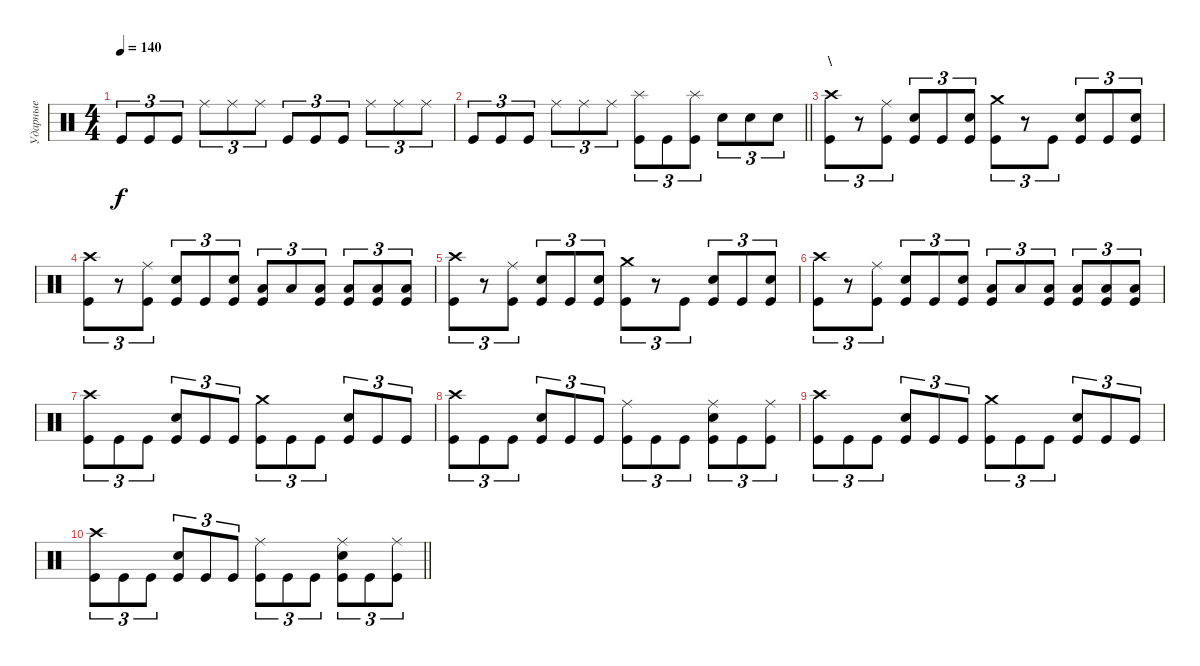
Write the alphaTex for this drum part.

\track ("Ударные" "Ударные") {instrument percussion}
\staff {score}
\articulation defaults
\ts (4 4)
\tempo 140
\clef neutral
\ks c "Kick (hit)".8{tu (3 2) dy f} "Kick (hit)".8{tu (3 2)} "Kick (hit)".8{tu (3 2)} "Ride (middle)".8{tu (3 2)} "Ride (middle)".8{tu (3 2)} "Ride (middle)".8{tu (3 2)} "Kick (hit)".8{tu (3 2)} "Kick (hit)".8{tu (3 2)} "Kick (hit)".8{tu (3 2)} "Ride (middle)".8{tu (3 2)} "Ride (middle)".8{tu (3 2)} "Ride (middle)".8{tu (3 2)}
|
\barLineRight lightlight "Kick (hit)".8{tu (3 2)} "Kick (hit)".8{tu (3 2)} "Kick (hit)".8{tu (3 2)} "Ride (middle)".8{tu (3 2)} "Ride (middle)".8{tu (3 2)} "Ride (middle)".8{tu (3 2)}
("Splash (hit)" "Kick (hit)").8{tu (3 2)} "Kick (hit)".8{tu (3 2)} ("Splash (hit)" "Kick (hit)").8{tu (3 2)} "Electric Snare (hit)".8{tu (3 2)} "Electric Snare (hit)".8{tu (3 2)} "Electric Snare (hit)".8{tu (3 2)} |
\section ("" " \\")
("Kick (hit)" "Crash high (hit)").8{tu (3 2)} r.8{tu (3 2)} ("Kick (hit)" "Ride (middle)").8{tu (3 2)} ("Kick (hit)" "Electric Snare (hit)").8{tu (3 2)} "Kick (hit)".8{tu (3 2)} ("Kick (hit)" "Electric Snare (hit)").8{tu (3 2)} ("Kick (hit)" "Crash medium (hit)").8{tu (3 2)} r.8{tu (3 2)} "Kick (hit)".8{tu (3 2)} ("Kick (hit)" "Electric Snare (hit)").8{tu (3 2)} "Kick (hit)".8{tu (3 2)} ("Kick (hit)" "Electric Snare (hit)").8{tu (3 2)} |
("Kick (hit)" "Crash high (hit)").8{tu (3 2)} r.8{tu (3 2)} ("Kick (hit)" "Ride (middle)").8{tu (3 2)} ("Kick (hit)" "Electric Snare (hit)").8{tu (3 2)} "Kick (hit)".8{tu (3 2)} ("Kick (hit)" "Electric Snare (hit)").8{tu (3 2)} ("Kick (hit)" "Low Tom (hit)").8{tu (3 2)} "Low Tom (hit)".8{tu (3 2)} ("Kick (hit)" "Low Tom (hit)").8{tu (3 2)} ("Kick (hit)" "Low Floor Tom (hit)").8{tu (3 2)} ("Kick (hit)" "Low Floor Tom (hit)").8{tu (3 2)} ("Kick (hit)" "Low Floor Tom (hit)").8{tu (3 2)} |
("Kick (hit)" "Crash high (hit)").8{tu (3 2)} r.8{tu (3 2)} ("Kick (hit)" "Ride (middle)").8{tu (3 2)} ("Kick (hit)" "Electric Snare (hit)").8{tu (3 2)} "Kick (hit)".8{tu (3 2)} ("Kick (hit)" "Electric Snare (hit)").8{tu (3 2)} ("Kick (hit)" "Crash medium (hit)").8{tu (3 2)} r.8{tu (3 2)} "Kick (hit)".8{tu (3 2)} ("Kick (hit)" "Electric Snare (hit)").8{tu (3 2)} "Kick (hit)".8{tu (3 2)} ("Kick (hit)" "Electric Snare (hit)").8{tu (3 2)} |
("Kick (hit)" "Crash high (hit)").8{tu (3 2)} r.8{tu (3 2)} ("Kick (hit)" "Ride (middle)").8{tu (3 2)} ("Kick (hit)" "Electric Snare (hit)").8{tu (3 2)} "Kick (hit)".8{tu (3 2)} ("Kick (hit)" "Electric Snare (hit)").8{tu (3 2)} ("Kick (hit)" "Low Tom (hit)").8{tu (3 2)} "Low Tom (hit)".8{tu (3 2)} ("Kick (hit)" "Low Tom (hit)").8{tu (3 2)} ("Kick (hit)" "Low Floor Tom (hit)").8{tu (3 2)} ("Kick (hit)" "Low Floor Tom (hit)").8{tu (3 2)} ("Kick (hit)" "Low Floor Tom (hit)").8{tu (3 2)} |
("Kick (hit)" "Crash high (hit)").8{tu (3 2)} "Kick (hit)".8{tu (3 2)} "Kick (hit)".8{tu (3 2)} ("Kick (hit)" "Electric Snare (hit)").8{tu (3 2)} "Kick (hit)".8{tu (3 2)} "Kick (hit)".8{tu (3 2)} ("Kick (hit)" "Crash medium (hit)").8{tu (3 2)} "Kick (hit)".8{tu (3 2)} "Kick (hit)".8{tu (3 2)} ("Kick (hit)" "Electric Snare (hit)").8{tu (3 2)} "Kick (hit)".8{tu (3 2)} "Kick (hit)".8{tu (3 2)} |
("Kick (hit)" "Crash high (hit)").8{tu (3 2)} "Kick (hit)".8{tu (3 2)} "Kick (hit)".8{tu (3 2)} ("Kick (hit)" "Electric Snare (hit)").8{tu (3 2)} "Kick (hit)".8{tu (3 2)} "Kick (hit)".8{tu (3 2)} ("Kick (hit)" "Ride (middle)").8{tu (3 2)} "Kick (hit)".8{tu (3 2)} "Kick (hit)".8{tu (3 2)} ("Kick (hit)" "Electric Snare (hit)" "Ride (middle)").8{tu (3 2)} "Kick (hit)".8{tu (3 2)} ("Kick (hit)" "Ride (middle)").8{tu (3 2)} |
("Kick (hit)" "Crash high (hit)").8{tu (3 2)} "Kick (hit)".8{tu (3 2)} "Kick (hit)".8{tu (3 2)} ("Kick (hit)" "Electric Snare (hit)").8{tu (3 2)} "Kick (hit)".8{tu (3 2)} "Kick (hit)".8{tu (3 2)} ("Kick (hit)" "Crash medium (hit)").8{tu (3 2)} "Kick (hit)".8{tu (3 2)} "Kick (hit)".8{tu (3 2)} ("Kick (hit)" "Electric Snare (hit)").8{tu (3 2)} "Kick (hit)".8{tu (3 2)} "Kick (hit)".8{tu (3 2)} |
\barLineRight lightlight
("Kick (hit)" "Crash high (hit)").8{tu (3 2)} "Kick (hit)".8{tu (3 2)} "Kick (hit)".8{tu (3 2)} ("Kick (hit)" "Electric Snare (hit)").8{tu (3 2)} "Kick (hit)".8{tu (3 2)} "Kick (hit)".8{tu (3 2)} ("Kick (hit)" "Ride (middle)").8{tu (3 2)} "Kick (hit)".8{tu (3 2)} "Kick (hit)".8{tu (3 2)} ("Kick (hit)" "Electric Snare (hit)" "Ride (middle)").8{tu (3 2)} "Kick (hit)".8{tu (3 2)} ("Kick (hit)" "Ride (middle)").8{tu (3 2)}
